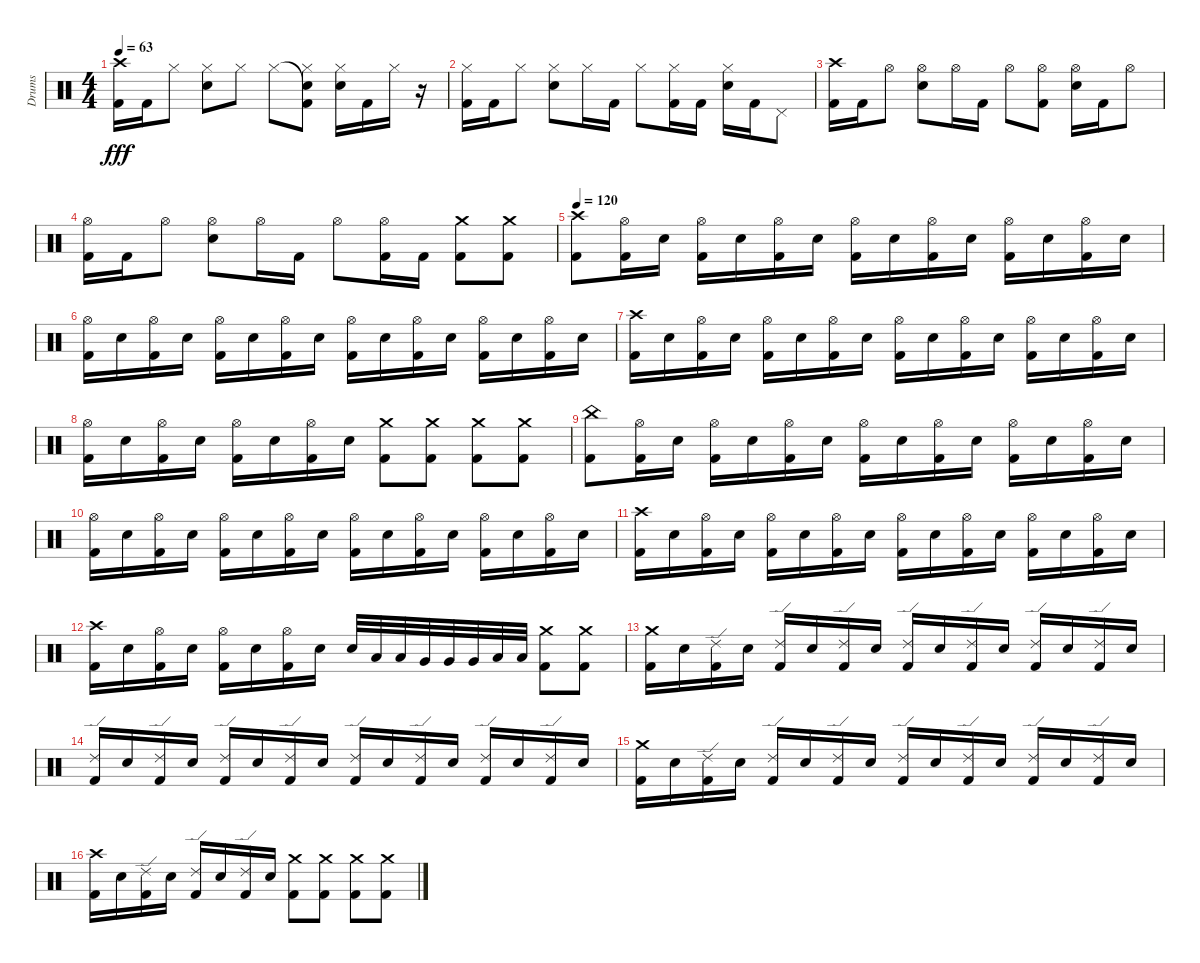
\track ("Drums" "Drums") {instrument percussion}
\staff {score}
\articulation defaults
\ts (4 4)
\tempo 63
\clef neutral
\ks c
("Crash high (hit)" "Kick (hit) 2").16{dy fff} "Kick (hit) 2".16 "Hi-Hat (closed)".8 ("Hi-Hat (closed)" "Electric Snare (hit)").8 "Hi-Hat (closed)".8 "Hi-Hat (closed)".8 ("Snare (hit)"{t} "Hi-Hat (closed)" "Kick (hit) 2").8 ("Hi-Hat (closed)" "Electric Snare (hit)").16 "Kick (hit) 2".16 "Hi-Hat (closed)".16 r.16 |
("Hi-Hat (closed)" "Kick (hit) 2").16 "Kick (hit) 2".16 "Hi-Hat (closed)".8 ("Hi-Hat (closed)" "Electric Snare (hit)").8 "Hi-Hat (closed)".16 "Kick (hit) 2".16 "Hi-Hat (closed)".8 ("Hi-Hat (closed)" "Kick (hit) 2").16 "Kick (hit) 2".16 ("Hi-Hat (closed)" "Electric Snare (hit)").16 "Kick (hit) 2".16 "Pedal Hi-Hat (hit)".8 |
("Crash high (hit)" "Kick (hit) 2").16 "Kick (hit) 2".16 "Hi-Hat (open)".8 ("Hi-Hat (open)" "Electric Snare (hit)").8 "Hi-Hat (open)".16 "Kick (hit) 2".16 "Hi-Hat (open)".8 ("Hi-Hat (open)" "Kick (hit) 2").8 ("Hi-Hat (open)" "Electric Snare (hit)").16 "Kick (hit) 2".16 "Hi-Hat (open)".8 |
("Hi-Hat (open)" "Kick (hit) 2").16 "Kick (hit) 2".16 "Hi-Hat (open)".8 ("Hi-Hat (open)" "Electric Snare (hit)").8 "Hi-Hat (open)".16 "Kick (hit) 2".16 "Hi-Hat (open)".8 ("Hi-Hat (open)" "Kick (hit) 2").16 "Kick (hit) 2".16 ("Crash medium (hit)" "Kick (hit) 2").8 ("Crash medium (hit)" "Kick (hit) 2").8 |
\tempo 120
("Crash high (hit)" "Kick (hit) 2").8 ("Hi-Hat (open)" "Kick (hit) 2").16 "Electric Snare (hit)".16 ("Hi-Hat (open)" "Kick (hit) 2").16 "Electric Snare (hit)".16 ("Hi-Hat (open)" "Kick (hit) 2").16 "Electric Snare (hit)".16 ("Hi-Hat (open)" "Kick (hit) 2").16 "Electric Snare (hit)".16 ("Hi-Hat (open)" "Kick (hit) 2").16 "Electric Snare (hit)".16 ("Hi-Hat (open)" "Kick (hit) 2").16 "Electric Snare (hit)".16 ("Hi-Hat (open)" "Kick (hit) 2").16 "Electric Snare (hit)".16 |
("Hi-Hat (open)" "Kick (hit) 2").16 "Electric Snare (hit)".16 ("Hi-Hat (open)" "Kick (hit) 2").16 "Electric Snare (hit)".16 ("Hi-Hat (open)" "Kick (hit) 2").16 "Electric Snare (hit)".16 ("Hi-Hat (open)" "Kick (hit) 2").16 "Electric Snare (hit)".16 ("Hi-Hat (open)" "Kick (hit) 2").16 "Electric Snare (hit)".16 ("Hi-Hat (open)" "Kick (hit) 2").16 "Electric Snare (hit)".16 ("Hi-Hat (open)" "Kick (hit) 2").16 "Electric Snare (hit)".16 ("Hi-Hat (open)" "Kick (hit) 2").16 "Electric Snare (hit)".16 |
("Crash high (hit)" "Kick (hit) 2").16 "Electric Snare (hit)".16 ("Hi-Hat (open)" "Kick (hit) 2").16 "Electric Snare (hit)".16 ("Hi-Hat (open)" "Kick (hit) 2").16 "Electric Snare (hit)".16 ("Hi-Hat (open)" "Kick (hit) 2").16 "Electric Snare (hit)".16 ("Hi-Hat (open)" "Kick (hit) 2").16 "Electric Snare (hit)".16 ("Hi-Hat (open)" "Kick (hit) 2").16 "Electric Snare (hit)".16 ("Hi-Hat (open)" "Kick (hit) 2").16 "Electric Snare (hit)".16 ("Hi-Hat (open)" "Kick (hit) 2").16 "Electric Snare (hit)".16 |
("Hi-Hat (open)" "Kick (hit) 2").16 "Electric Snare (hit)".16 ("Hi-Hat (open)" "Kick (hit) 2").16 "Electric Snare (hit)".16 ("Hi-Hat (open)" "Kick (hit) 2").16 "Electric Snare (hit)".16 ("Hi-Hat (open)" "Kick (hit) 2").16 "Electric Snare (hit)".16 ("Crash medium (hit)" "Kick (hit) 2").8 ("Crash medium (hit)" "Kick (hit) 2").8 ("Crash medium (hit)" "Kick (hit) 2").8 ("Crash medium (hit)" "Kick (hit) 2").8 |
("China (hit)" "Kick (hit) 2").8 ("Hi-Hat (open)" "Kick (hit) 2").16 "Electric Snare (hit)".16 ("Hi-Hat (open)" "Kick (hit) 2").16 "Electric Snare (hit)".16 ("Hi-Hat (open)" "Kick (hit) 2").16 "Electric Snare (hit)".16 ("Hi-Hat (open)" "Kick (hit) 2").16 "Electric Snare (hit)".16 ("Hi-Hat (open)" "Kick (hit) 2").16 "Electric Snare (hit)".16 ("Hi-Hat (open)" "Kick (hit) 2").16 "Electric Snare (hit)".16 ("Hi-Hat (open)" "Kick (hit) 2").16 "Electric Snare (hit)".16 |
("Hi-Hat (open)" "Kick (hit) 2").16 "Electric Snare (hit)".16 ("Hi-Hat (open)" "Kick (hit) 2").16 "Electric Snare (hit)".16 ("Hi-Hat (open)" "Kick (hit) 2").16 "Electric Snare (hit)".16 ("Hi-Hat (open)" "Kick (hit) 2").16 "Electric Snare (hit)".16 ("Hi-Hat (open)" "Kick (hit) 2").16 "Electric Snare (hit)".16 ("Hi-Hat (open)" "Kick (hit) 2").16 "Electric Snare (hit)".16 ("Hi-Hat (open)" "Kick (hit) 2").16 "Electric Snare (hit)".16 ("Hi-Hat (open)" "Kick (hit) 2").16 "Electric Snare (hit)".16 |
("Crash high (hit)" "Kick (hit) 2").16 "Electric Snare (hit)".16 ("Hi-Hat (open)" "Kick (hit) 2").16 "Electric Snare (hit)".16 ("Hi-Hat (open)" "Kick (hit) 2").16 "Electric Snare (hit)".16 ("Hi-Hat (open)" "Kick (hit) 2").16 "Electric Snare (hit)".16 ("Hi-Hat (open)" "Kick (hit) 2").16 "Electric Snare (hit)".16 ("Hi-Hat (open)" "Kick (hit) 2").16 "Electric Snare (hit)".16 ("Hi-Hat (open)" "Kick (hit) 2").16 "Electric Snare (hit)".16 ("Hi-Hat (open)" "Kick (hit) 2").16 "Electric Snare (hit)".16 |
("Crash high (hit)" "Kick (hit) 2").16 "Electric Snare (hit)".16 ("Hi-Hat (open)" "Kick (hit) 2").16 "Electric Snare (hit)".16 ("Hi-Hat (open)" "Kick (hit) 2").16 "Electric Snare (hit)".16 ("Hi-Hat (open)" "Kick (hit) 2").16 "Electric Snare (hit)".16 "Electric Snare (hit)".32 "Low Tom (hit)".32 "Low Tom (hit)".32 "Very Low Tom (hit)".32 "Very Low Tom (hit)".32 "Very Low Tom (hit)".32 "Low Floor Tom (hit)".32 "Low Floor Tom (hit)".32 ("Crash medium (hit)" "Kick (hit) 2").8 ("Crash medium (hit)" "Kick (hit) 2").8 |
("Crash medium (hit)" "Kick (hit) 2").16 "Electric Snare (hit)".16 ("Ride (edge) 2" "Kick (hit) 2").16 "Electric Snare (hit)".16 ("Ride (edge) 2" "Kick (hit) 2").16 "Electric Snare (hit)".16 ("Ride (edge) 2" "Kick (hit) 2").16 "Electric Snare (hit)".16 ("Ride (edge) 2" "Kick (hit) 2").16 "Electric Snare (hit)".16 ("Ride (edge) 2" "Kick (hit) 2").16 "Electric Snare (hit)".16 ("Ride (edge) 2" "Kick (hit) 2").16 "Electric Snare (hit)".16 ("Ride (edge) 2" "Kick (hit) 2").16 "Electric Snare (hit)".16 |
("Ride (edge) 2" "Kick (hit) 2").16 "Electric Snare (hit)".16 ("Ride (edge) 2" "Kick (hit) 2").16 "Electric Snare (hit)".16 ("Ride (edge) 2" "Kick (hit) 2").16 "Electric Snare (hit)".16 ("Ride (edge) 2" "Kick (hit) 2").16 "Electric Snare (hit)".16 ("Ride (edge) 2" "Kick (hit) 2").16 "Electric Snare (hit)".16 ("Ride (edge) 2" "Kick (hit) 2").16 "Electric Snare (hit)".16 ("Ride (edge) 2" "Kick (hit) 2").16 "Electric Snare (hit)".16 ("Ride (edge) 2" "Kick (hit) 2").16 "Electric Snare (hit)".16 |
("Crash medium (hit)" "Kick (hit) 2").16 "Electric Snare (hit)".16 ("Ride (edge) 2" "Kick (hit) 2").16 "Electric Snare (hit)".16 ("Ride (edge) 2" "Kick (hit) 2").16 "Electric Snare (hit)".16 ("Ride (edge) 2" "Kick (hit) 2").16 "Electric Snare (hit)".16 ("Ride (edge) 2" "Kick (hit) 2").16 "Electric Snare (hit)".16 ("Ride (edge) 2" "Kick (hit) 2").16 "Electric Snare (hit)".16 ("Ride (edge) 2" "Kick (hit) 2").16 "Electric Snare (hit)".16 ("Ride (edge) 2" "Kick (hit) 2").16 "Electric Snare (hit)".16 |
("Crash high (hit)" "Kick (hit) 2").16 "Electric Snare (hit)".16 ("Ride (edge) 2" "Kick (hit) 2").16 "Electric Snare (hit)".16 ("Ride (edge) 2" "Kick (hit) 2").16 "Electric Snare (hit)".16 ("Ride (edge) 2" "Kick (hit) 2").16 "Electric Snare (hit)".16 ("Crash medium (hit)" "Kick (hit) 2").8 ("Crash medium (hit)" "Kick (hit) 2").8 ("Crash medium (hit)" "Kick (hit) 2").8 ("Crash medium (hit)" "Kick (hit) 2").8
